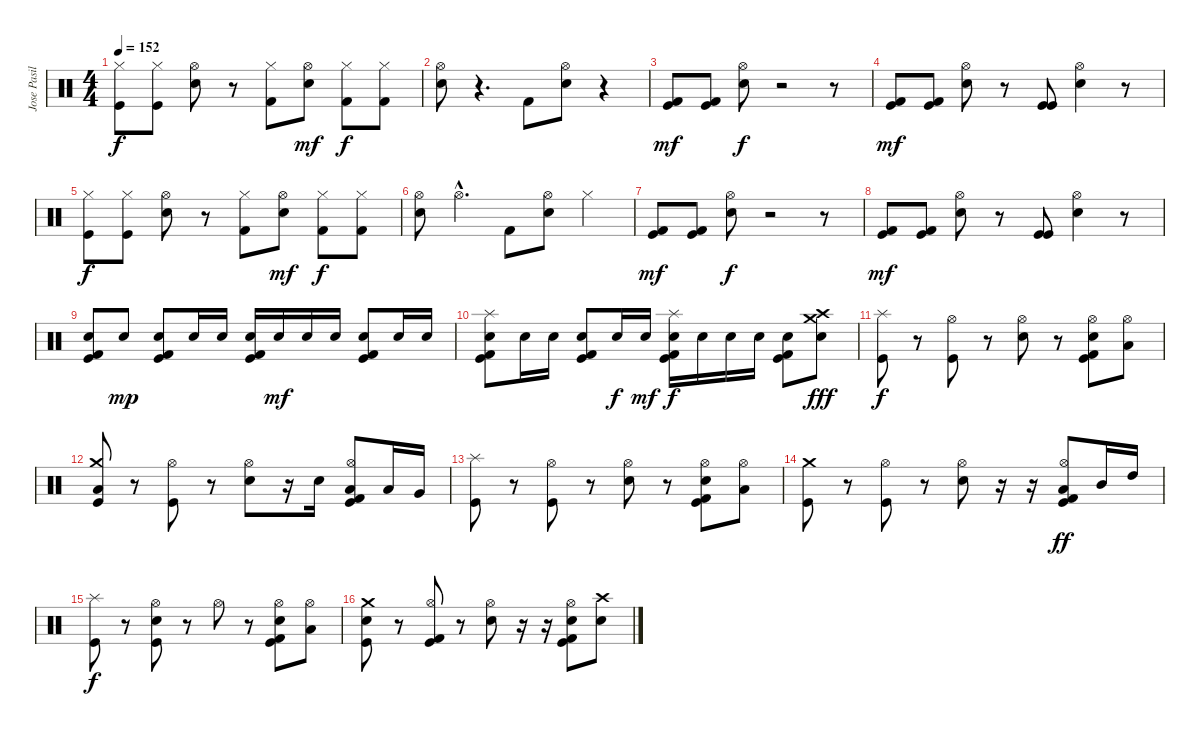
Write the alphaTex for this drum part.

\track ("Jose Pasillas" "Jose Pasil") {instrument percussion}
\staff {score}
\articulation defaults
\ts (4 4)
\tempo 152
\clef neutral
\ks c
("Kick (hit)" "Hi-Hat (closed)").8{dy f} ("Kick (hit)" "Hi-Hat (closed)").8 ("Electric Snare (hit)" "Hi-Hat (open)").8 r.8 ("Kick (hit) 2" "Hi-Hat (closed)").8 ("Electric Snare (hit)" "Hi-Hat (open)").8{dy mf} ("Kick (hit) 2" "Hi-Hat (closed)").8{dy f} ("Kick (hit) 2" "Hi-Hat (closed)").8 |
("Hi-Hat (open)" "Electric Snare (hit)").8 r.4{d} "Kick (hit) 2".8 ("Electric Snare (hit)" "Hi-Hat (open)").8 r.4 |
("Kick (hit)" "Kick (hit) 2").8{dy mf} ("Kick (hit)" "Kick (hit) 2").8 ("Electric Snare (hit)" "Hi-Hat (open)").8{dy f} r.2 r.8 |
("Kick (hit)" "Kick (hit) 2").8{dy mf} ("Kick (hit)" "Kick (hit) 2").8 ("Electric Snare (hit)" "Hi-Hat (open)").8 r.8 ("Kick (hit)" "Kick (hit)").8 ("Electric Snare (hit)" "Hi-Hat (open)").4 r.8 |
("Kick (hit)" "Hi-Hat (closed)").8{dy f} ("Kick (hit)" "Hi-Hat (closed)").8 ("Electric Snare (hit)" "Hi-Hat (open)").8 r.8 ("Kick (hit) 2" "Hi-Hat (closed)").8 ("Electric Snare (hit)" "Hi-Hat (open)").8{dy mf} ("Kick (hit) 2" "Hi-Hat (closed)").8{dy f} ("Kick (hit) 2" "Hi-Hat (closed)").8 |
("Hi-Hat (open)" "Electric Snare (hit)").8 "Hi-Hat (open)"{hac}.4{d} "Kick (hit) 2".8 ("Electric Snare (hit)" "Hi-Hat (open)").8 "Hi-Hat (closed)".4 |
("Kick (hit)" "Kick (hit) 2").8{dy mf} ("Kick (hit)" "Kick (hit) 2").8 ("Electric Snare (hit)" "Hi-Hat (open)").8{dy f} r.2 r.8 |
("Kick (hit)" "Kick (hit) 2").8{dy mf} ("Kick (hit)" "Kick (hit) 2").8 ("Electric Snare (hit)" "Hi-Hat (open)").8 r.8 ("Kick (hit)" "Kick (hit)").8 ("Electric Snare (hit)" "Hi-Hat (open)").4 r.8 |
("Electric Snare (hit)" "Kick (hit) 2" "Kick (hit)").8 "Electric Snare (hit)".8{dy mp} ("Electric Snare (hit)" "Kick (hit) 2" "Kick (hit)").8 "Electric Snare (hit)".16 "Electric Snare (hit)".16 ("Electric Snare (hit)" "Kick (hit) 2" "Kick (hit)").16 "Electric Snare (hit)".16{dy mf} "Electric Snare (hit)".16 "Electric Snare (hit)".16 ("Electric Snare (hit)" "Kick (hit) 2" "Kick (hit)").8 "Electric Snare (hit)".16 "Electric Snare (hit)".16 |
("Electric Snare (hit)" "Splash (hit)" "Kick (hit) 2" "Kick (hit)").8 "Electric Snare (hit)".16 "Electric Snare (hit)".16 ("Electric Snare (hit)" "Kick (hit) 2" "Kick (hit)").8 "Electric Snare (hit)".16{dy f} "Electric Snare (hit)".16{dy mf} ("Electric Snare (hit)" "Splash (hit)" "Kick (hit) 2" "Kick (hit)").16{dy f} "Electric Snare (hit)".16 "Electric Snare (hit)".16 "Electric Snare (hit)".16 ("Electric Snare (hit)" "Kick (hit) 2" "Kick (hit)").8 ("Electric Snare (hit)" "Crash medium (hit)" "Crash high (hit)").8{dy fff} |
("Splash (hit)" "Kick (hit)").8{dy f} r.8 ("Hi-Hat (open)" "Kick (hit)").8 r.8 ("Hi-Hat (open)" "Electric Snare (hit)").8 r.8 ("Hi-Hat (open)" "Electric Snare (hit)" "Kick (hit) 2" "Kick (hit)").8 ("Hi-Hat (open)" "Low Tom (hit)").8 |
("Crash medium (hit)" "Low Floor Tom (hit)" "Kick (hit)").8 r.8 ("Hi-Hat (open)" "Kick (hit)").8 r.8 ("Hi-Hat (open)" "Electric Snare (hit)").8 r.16 "Electric Snare (hit)".16 ("Hi-Hat (open)" "Low Tom (hit)" "Kick (hit) 2" "Kick (hit)").8 "Low Floor Tom (hit)".16 "Very Low Tom (hit)".16 |
("Splash (hit)" "Kick (hit)").8 r.8 ("Hi-Hat (open)" "Kick (hit)").8 r.8 ("Hi-Hat (open)" "Electric Snare (hit)").8 r.8 ("Hi-Hat (open)" "Electric Snare (hit)" "Kick (hit) 2" "Kick (hit)").8 ("Hi-Hat (open)" "Low Tom (hit)").8 |
("Crash medium (hit)" "Kick (hit)").8 r.8 ("Hi-Hat (open)" "Kick (hit)").8 r.8 ("Hi-Hat (open)" "Electric Snare (hit)").8 r.16 r.16 ("Hi-Hat (open)" "Low Tom (hit)" "Kick (hit) 2" "Kick (hit)").8{dy ff} "Mid Tom (hit)".16 "High Tom (hit)".16 |
("Splash (hit)" "Kick (hit)").8{dy f} r.8 ("Hi-Hat (open)" "Electric Snare (hit)" "Kick (hit)").8 r.8 "Hi-Hat (open)".8 r.8 ("Hi-Hat (open)" "Electric Snare (hit)" "Kick (hit) 2" "Kick (hit)").8 ("Hi-Hat (open)" "Low Tom (hit)").8 |
("Crash medium (hit)" "Electric Snare (hit)" "Kick (hit)").8 r.8 ("Hi-Hat (open)" "Kick (hit) 2" "Kick (hit)").8 r.8 ("Hi-Hat (open)" "Electric Snare (hit)").8 r.16 r.16 ("Hi-Hat (open)" "Electric Snare (hit)" "Kick (hit) 2" "Kick (hit)").8 ("Crash high (hit)" "Electric Snare (hit)").8
